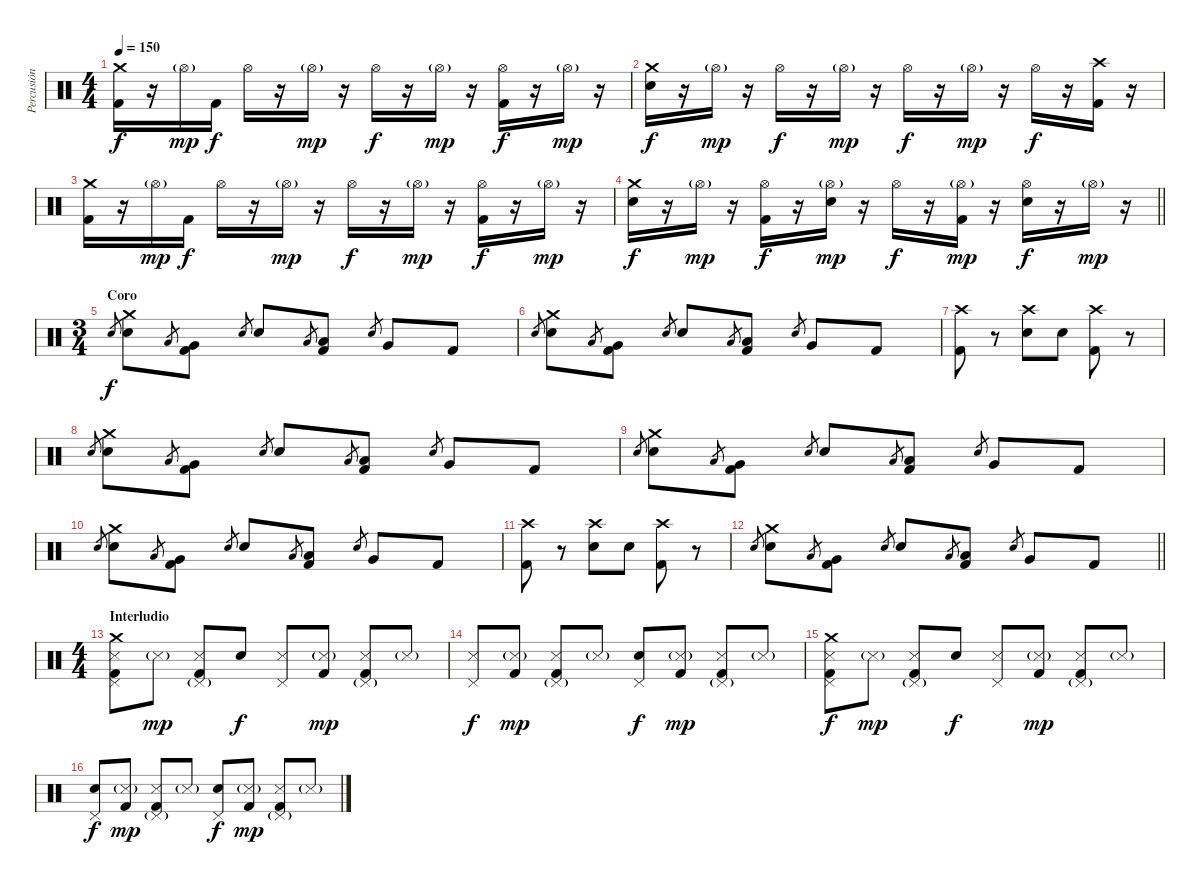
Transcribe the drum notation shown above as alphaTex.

\track ("Percusión" "Percusión") {instrument percussion}
\staff {score}
\articulation defaults
\ts (4 4)
\tempo 150
\clef neutral
\ks c
("Crash medium (hit)" "Kick (hit) 2").16{dy f} r.16 "Hi-Hat (open)"{g}.16{dy mp} "Kick (hit) 2".16{dy f} "Hi-Hat (open)".16 r.16 "Hi-Hat (open)"{g}.16{dy mp} r.16 "Hi-Hat (open)".16{dy f} r.16 "Hi-Hat (open)"{g}.16{dy mp} r.16 ("Hi-Hat (open)" "Kick (hit) 2").16{dy f} r.16 "Hi-Hat (open)"{g}.16{dy mp} r.16 |
("Crash medium (hit)" "Electric Snare (hit)").16{dy f} r.16 "Hi-Hat (open)"{g}.16{dy mp} r.16 "Hi-Hat (open)".16{dy f} r.16 "Hi-Hat (open)"{g}.16{dy mp} r.16 "Hi-Hat (open)".16{dy f} r.16 "Hi-Hat (open)"{g}.16{dy mp} r.16 "Hi-Hat (open)".16{dy f} r.16 ("Crash high (hit)" "Kick (hit) 2").16 r.16 |
("Crash medium (hit)" "Kick (hit) 2").16 r.16 "Hi-Hat (open)"{g}.16{dy mp} "Kick (hit) 2".16{dy f} "Hi-Hat (open)".16 r.16 "Hi-Hat (open)"{g}.16{dy mp} r.16 "Hi-Hat (open)".16{dy f} r.16 "Hi-Hat (open)"{g}.16{dy mp} r.16 ("Hi-Hat (open)" "Kick (hit) 2").16{dy f} r.16 "Hi-Hat (open)"{g}.16{dy mp} r.16 |
\barLineRight lightlight
("Crash medium (hit)" "Electric Snare (hit)").16{dy f} r.16 "Hi-Hat (open)"{g}.16{dy mp} r.16 ("Hi-Hat (open)" "Kick (hit) 2").16{dy f} r.16 ("Hi-Hat (open)"{g} "Electric Snare (hit)").16{dy mp} r.16 "Hi-Hat (open)".16{dy f} r.16 ("Hi-Hat (open)"{g} "Kick (hit) 2").16{dy mp} r.16 ("Hi-Hat (open)" "Electric Snare (hit)").16{dy f} r.16 "Hi-Hat (open)"{g}.16{dy mp} r.16 |
\ts (3 4)
\section ("" "Coro")
"Electric Snare (hit)".8{gr dy f} ("Crash medium (hit)" "Electric Snare (hit)").8 "Low Tom (hit)".8{gr} ("Very Low Tom (hit)" "Kick (hit) 2").8 "Electric Snare (hit)".8{gr} "Electric Snare (hit)".8 "Low Tom (hit)".8{gr} ("Low Floor Tom (hit)" "Kick (hit) 2").8 "Electric Snare (hit)".8{gr} "Very Low Tom (hit)".8 "Kick (hit) 2".8 |
"Electric Snare (hit)".8{gr} ("Crash medium (hit)" "Electric Snare (hit)").8 "Low Tom (hit)".8{gr} ("Very Low Tom (hit)" "Kick (hit) 2").8 "Electric Snare (hit)".8{gr} "Electric Snare (hit)".8 "Low Tom (hit)".8{gr} ("Low Floor Tom (hit)" "Kick (hit) 2").8 "Electric Snare (hit)".8{gr} "Very Low Tom (hit)".8 "Kick (hit) 2".8 |
("Crash high (hit)" "Kick (hit) 2").8 r.8 ("Crash high (hit)" "Electric Snare (hit)").8 "Electric Snare (hit)".8 ("Crash high (hit)" "Kick (hit) 2").8 r.8 |
"Electric Snare (hit)".8{gr} ("Crash medium (hit)" "Electric Snare (hit)").8 "Low Tom (hit)".8{gr} ("Very Low Tom (hit)" "Kick (hit) 2").8 "Electric Snare (hit)".8{gr} "Electric Snare (hit)".8 "Low Tom (hit)".8{gr} ("Low Floor Tom (hit)" "Kick (hit) 2").8 "Electric Snare (hit)".8{gr} "Very Low Tom (hit)".8 "Kick (hit) 2".8 |
"Electric Snare (hit)".8{gr} ("Crash medium (hit)" "Electric Snare (hit)").8 "Low Tom (hit)".8{gr} ("Very Low Tom (hit)" "Kick (hit) 2").8 "Electric Snare (hit)".8{gr} "Electric Snare (hit)".8 "Low Tom (hit)".8{gr} ("Low Floor Tom (hit)" "Kick (hit) 2").8 "Electric Snare (hit)".8{gr} "Very Low Tom (hit)".8 "Kick (hit) 2".8 |
"Electric Snare (hit)".8{gr} ("Crash medium (hit)" "Electric Snare (hit)").8 "Low Tom (hit)".8{gr} ("Very Low Tom (hit)" "Kick (hit) 2").8 "Electric Snare (hit)".8{gr} "Electric Snare (hit)".8 "Low Tom (hit)".8{gr} ("Low Floor Tom (hit)" "Kick (hit) 2").8 "Electric Snare (hit)".8{gr} "Very Low Tom (hit)".8 "Kick (hit) 2".8 |
("Crash high (hit)" "Kick (hit) 2").8 r.8 ("Crash high (hit)" "Electric Snare (hit)").8 "Electric Snare (hit)".8 ("Crash high (hit)" "Kick (hit) 2").8 r.8 |
\barLineRight lightlight "Electric Snare (hit)".8{gr}
("Crash medium (hit)" "Electric Snare (hit)").8 "Low Tom (hit)".8{gr} ("Very Low Tom (hit)" "Kick (hit) 2").8 "Electric Snare (hit)".8{gr} "Electric Snare (hit)".8 "Low Tom (hit)".8{gr} ("Low Floor Tom (hit)" "Kick (hit) 2").8 "Electric Snare (hit)".8{gr} "Very Low Tom (hit)".8 "Kick (hit) 2".8 |
\ts (4 4)
\section ("" "Interludio")
("Crash medium (hit)" "Pedal Hi-Hat (hit)" "Snare (side stick) 3" "Kick (hit) 2").8 "Snare (side stick) 3"{g}.8{dy mp} ("Pedal Hi-Hat (hit)"{g} "Snare (side stick) 3" "Kick (hit) 2").8 "Electric Snare (hit)".8{dy f} ("Pedal Hi-Hat (hit)" "Snare (side stick) 3").8 ("Snare (side stick) 3"{g} "Kick (hit) 2").8{dy mp} ("Pedal Hi-Hat (hit)"{g} "Snare (side stick) 3" "Kick (hit) 2").8 "Snare (side stick) 3"{g}.8 |
("Pedal Hi-Hat (hit)" "Snare (side stick) 3").8{dy f} ("Snare (side stick) 3"{g} "Kick (hit) 2").8{dy mp} ("Pedal Hi-Hat (hit)"{g} "Snare (side stick) 3" "Kick (hit) 2").8 "Snare (side stick) 3"{g}.8 ("Pedal Hi-Hat (hit)" "Electric Snare (hit)").8{dy f} ("Snare (side stick) 3"{g} "Kick (hit) 2").8{dy mp} ("Pedal Hi-Hat (hit)"{g} "Snare (side stick) 3" "Kick (hit) 2").8 "Snare (side stick) 3"{g}.8 |
("Crash medium (hit)" "Pedal Hi-Hat (hit)" "Snare (side stick) 3" "Kick (hit) 2").8{dy f} "Snare (side stick) 3"{g}.8{dy mp} ("Pedal Hi-Hat (hit)"{g} "Snare (side stick) 3" "Kick (hit) 2").8 "Electric Snare (hit)".8{dy f} ("Pedal Hi-Hat (hit)" "Snare (side stick) 3").8 ("Snare (side stick) 3"{g} "Kick (hit) 2").8{dy mp} ("Pedal Hi-Hat (hit)"{g} "Snare (side stick) 3" "Kick (hit) 2").8 "Snare (side stick) 3"{g}.8 |
("Pedal Hi-Hat (hit)" "Electric Snare (hit)").8{dy f} ("Snare (side stick) 3"{g} "Kick (hit) 2").8{dy mp} ("Pedal Hi-Hat (hit)"{g} "Snare (side stick) 3" "Kick (hit) 2").8 "Snare (side stick) 3"{g}.8 ("Pedal Hi-Hat (hit)" "Electric Snare (hit)").8{dy f} ("Snare (side stick) 3"{g} "Kick (hit) 2").8{dy mp} ("Pedal Hi-Hat (hit)"{g} "Snare (side stick) 3" "Kick (hit) 2").8 "Snare (side stick) 3"{g}.8
